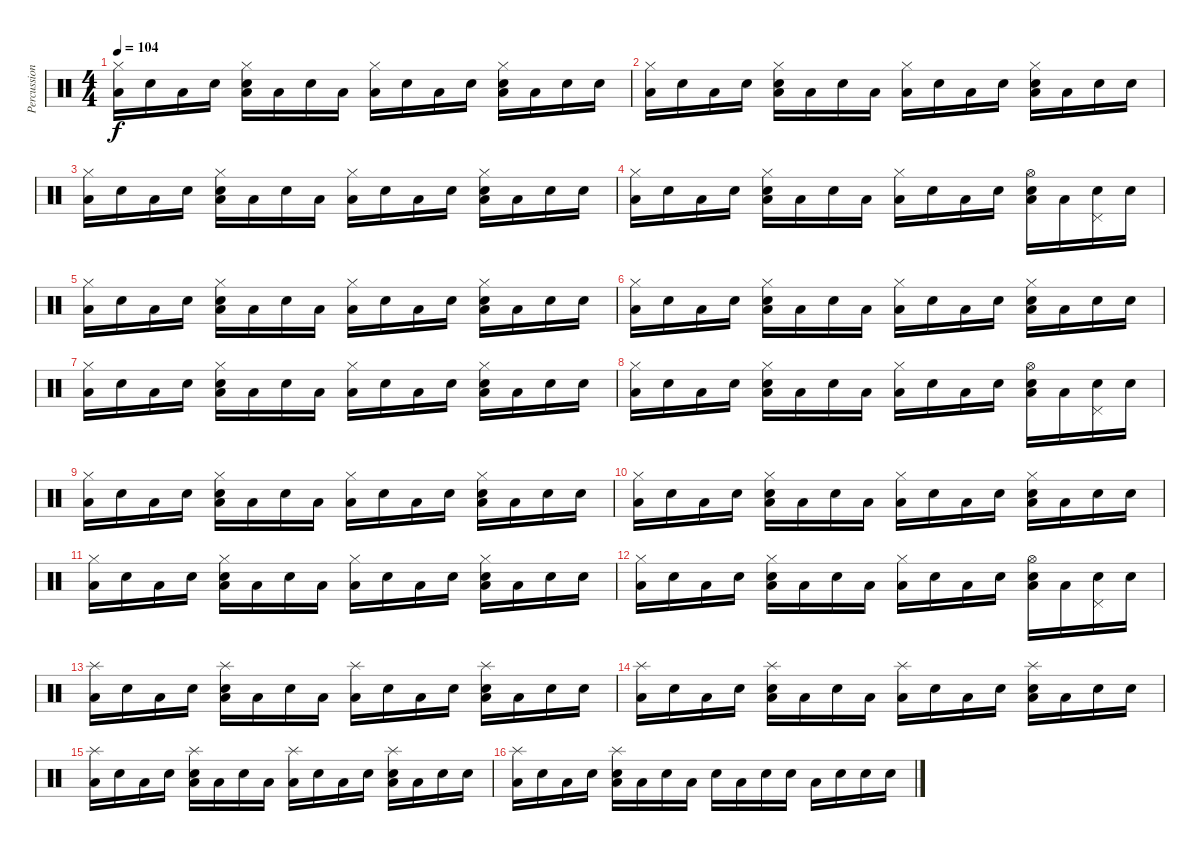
\track ("Percussion" "Percussion") {instrument percussion}
\staff {score}
\articulation defaults
\ts (4 4)
\tempo 104
\clef neutral
\ks c
("Low Floor Tom (hit)" "Hi-Hat (closed)").16{dy f} "Snare (hit)".16 "Low Floor Tom (hit)".16 "Snare (hit)".16 ("Low Floor Tom (hit)" "Hi-Hat (closed)" "Snare (hit) 2").16 "Low Floor Tom (hit)".16 "Snare (hit)".16 "Low Floor Tom (hit)".16 ("Low Floor Tom (hit)" "Hi-Hat (closed)").16 "Snare (hit)".16 "Low Floor Tom (hit)".16 "Snare (hit)".16 ("Low Floor Tom (hit)" "Hi-Hat (closed)" "Snare (hit) 2").16 "Low Floor Tom (hit)".16 "Snare (hit)".16 "Snare (hit)".16 |
("Low Floor Tom (hit)" "Hi-Hat (closed)").16 "Snare (hit)".16 "Low Floor Tom (hit)".16 "Snare (hit)".16 ("Low Floor Tom (hit)" "Hi-Hat (closed)" "Snare (hit) 2").16 "Low Floor Tom (hit)".16 "Snare (hit)".16 "Low Floor Tom (hit)".16 ("Low Floor Tom (hit)" "Hi-Hat (closed)").16 "Snare (hit)".16 "Low Floor Tom (hit)".16 "Snare (hit)".16 ("Low Floor Tom (hit)" "Hi-Hat (closed)" "Snare (hit) 2").16 "Low Floor Tom (hit)".16 "Snare (hit)".16 "Snare (hit)".16 |
("Low Floor Tom (hit)" "Hi-Hat (closed)").16 "Snare (hit)".16 "Low Floor Tom (hit)".16 "Snare (hit)".16 ("Low Floor Tom (hit)" "Hi-Hat (closed)" "Snare (hit) 2").16 "Low Floor Tom (hit)".16 "Snare (hit)".16 "Low Floor Tom (hit)".16 ("Low Floor Tom (hit)" "Hi-Hat (closed)").16 "Snare (hit)".16 "Low Floor Tom (hit)".16 "Snare (hit)".16 ("Low Floor Tom (hit)" "Hi-Hat (closed)" "Snare (hit) 2").16 "Low Floor Tom (hit)".16 "Snare (hit)".16 "Snare (hit)".16 |
("Low Floor Tom (hit)" "Hi-Hat (closed)").16 "Snare (hit)".16 "Low Floor Tom (hit)".16 "Snare (hit)".16 ("Low Floor Tom (hit)" "Hi-Hat (closed)" "Snare (hit) 2").16 "Low Floor Tom (hit)".16 "Snare (hit)".16 "Low Floor Tom (hit)".16 ("Low Floor Tom (hit)" "Hi-Hat (closed)").16 "Snare (hit)".16 "Low Floor Tom (hit)".16 "Snare (hit)".16 ("Low Floor Tom (hit)" "Hi-Hat (open)" "Snare (hit) 2").16 "Low Floor Tom (hit)".16 ("Snare (hit)" "Pedal Hi-Hat (hit)").16 "Snare (hit)".16 |
("Low Floor Tom (hit)" "Hi-Hat (closed)").16 "Snare (hit)".16 "Low Floor Tom (hit)".16 "Snare (hit)".16 ("Low Floor Tom (hit)" "Hi-Hat (closed)" "Snare (hit) 2").16 "Low Floor Tom (hit)".16 "Snare (hit)".16 "Low Floor Tom (hit)".16 ("Low Floor Tom (hit)" "Hi-Hat (closed)").16 "Snare (hit)".16 "Low Floor Tom (hit)".16 "Snare (hit)".16 ("Low Floor Tom (hit)" "Hi-Hat (closed)" "Snare (hit) 2").16 "Low Floor Tom (hit)".16 "Snare (hit)".16 "Snare (hit)".16 |
("Low Floor Tom (hit)" "Hi-Hat (closed)").16 "Snare (hit)".16 "Low Floor Tom (hit)".16 "Snare (hit)".16 ("Low Floor Tom (hit)" "Hi-Hat (closed)" "Snare (hit) 2").16 "Low Floor Tom (hit)".16 "Snare (hit)".16 "Low Floor Tom (hit)".16 ("Low Floor Tom (hit)" "Hi-Hat (closed)").16 "Snare (hit)".16 "Low Floor Tom (hit)".16 "Snare (hit)".16 ("Low Floor Tom (hit)" "Hi-Hat (closed)" "Snare (hit) 2").16 "Low Floor Tom (hit)".16 "Snare (hit)".16 "Snare (hit)".16 |
("Low Floor Tom (hit)" "Hi-Hat (closed)").16 "Snare (hit)".16 "Low Floor Tom (hit)".16 "Snare (hit)".16 ("Low Floor Tom (hit)" "Hi-Hat (closed)" "Snare (hit) 2").16 "Low Floor Tom (hit)".16 "Snare (hit)".16 "Low Floor Tom (hit)".16 ("Low Floor Tom (hit)" "Hi-Hat (closed)").16 "Snare (hit)".16 "Low Floor Tom (hit)".16 "Snare (hit)".16 ("Low Floor Tom (hit)" "Hi-Hat (closed)" "Snare (hit) 2").16 "Low Floor Tom (hit)".16 "Snare (hit)".16 "Snare (hit)".16 |
("Low Floor Tom (hit)" "Hi-Hat (closed)").16 "Snare (hit)".16 "Low Floor Tom (hit)".16 "Snare (hit)".16 ("Low Floor Tom (hit)" "Hi-Hat (closed)" "Snare (hit) 2").16 "Low Floor Tom (hit)".16 "Snare (hit)".16 "Low Floor Tom (hit)".16 ("Low Floor Tom (hit)" "Hi-Hat (closed)").16 "Snare (hit)".16 "Low Floor Tom (hit)".16 "Snare (hit)".16 ("Low Floor Tom (hit)" "Hi-Hat (open)" "Snare (hit) 2").16 "Low Floor Tom (hit)".16 ("Snare (hit)" "Pedal Hi-Hat (hit)").16 "Snare (hit)".16 |
("Low Floor Tom (hit)" "Hi-Hat (closed)").16 "Snare (hit)".16 "Low Floor Tom (hit)".16 "Snare (hit)".16 ("Low Floor Tom (hit)" "Hi-Hat (closed)" "Snare (hit) 2").16 "Low Floor Tom (hit)".16 "Snare (hit)".16 "Low Floor Tom (hit)".16 ("Low Floor Tom (hit)" "Hi-Hat (closed)").16 "Snare (hit)".16 "Low Floor Tom (hit)".16 "Snare (hit)".16 ("Low Floor Tom (hit)" "Hi-Hat (closed)" "Snare (hit) 2").16 "Low Floor Tom (hit)".16 "Snare (hit)".16 "Snare (hit)".16 |
("Low Floor Tom (hit)" "Hi-Hat (closed)").16 "Snare (hit)".16 "Low Floor Tom (hit)".16 "Snare (hit)".16 ("Low Floor Tom (hit)" "Hi-Hat (closed)" "Snare (hit) 2").16 "Low Floor Tom (hit)".16 "Snare (hit)".16 "Low Floor Tom (hit)".16 ("Low Floor Tom (hit)" "Hi-Hat (closed)").16 "Snare (hit)".16 "Low Floor Tom (hit)".16 "Snare (hit)".16 ("Low Floor Tom (hit)" "Hi-Hat (closed)" "Snare (hit) 2").16 "Low Floor Tom (hit)".16 "Snare (hit)".16 "Snare (hit)".16 |
("Low Floor Tom (hit)" "Hi-Hat (closed)").16 "Snare (hit)".16 "Low Floor Tom (hit)".16 "Snare (hit)".16 ("Low Floor Tom (hit)" "Hi-Hat (closed)" "Snare (hit) 2").16 "Low Floor Tom (hit)".16 "Snare (hit)".16 "Low Floor Tom (hit)".16 ("Low Floor Tom (hit)" "Hi-Hat (closed)").16 "Snare (hit)".16 "Low Floor Tom (hit)".16 "Snare (hit)".16 ("Low Floor Tom (hit)" "Hi-Hat (closed)" "Snare (hit) 2").16 "Low Floor Tom (hit)".16 "Snare (hit)".16 "Snare (hit)".16 |
("Low Floor Tom (hit)" "Hi-Hat (closed)").16 "Snare (hit)".16 "Low Floor Tom (hit)".16 "Snare (hit)".16 ("Low Floor Tom (hit)" "Hi-Hat (closed)" "Snare (hit) 2").16 "Low Floor Tom (hit)".16 "Snare (hit)".16 "Low Floor Tom (hit)".16 ("Low Floor Tom (hit)" "Hi-Hat (closed)").16 "Snare (hit)".16 "Low Floor Tom (hit)".16 "Snare (hit)".16 ("Low Floor Tom (hit)" "Hi-Hat (open)" "Snare (hit) 2").16 "Low Floor Tom (hit)".16 ("Snare (hit)" "Pedal Hi-Hat (hit)").16 "Snare (hit)".16 |
("Low Floor Tom (hit)" "Splash (hit)").16 "Snare (hit)".16 "Low Floor Tom (hit)".16 "Snare (hit)".16 ("Low Floor Tom (hit)" "Splash (hit)" "Snare (hit) 2").16 "Low Floor Tom (hit)".16 "Snare (hit)".16 "Low Floor Tom (hit)".16 ("Low Floor Tom (hit)" "Splash (hit)").16 "Snare (hit)".16 "Low Floor Tom (hit)".16 "Snare (hit)".16 ("Low Floor Tom (hit)" "Splash (hit)" "Snare (hit) 2").16 "Low Floor Tom (hit)".16 "Snare (hit)".16 "Snare (hit)".16 |
("Low Floor Tom (hit)" "Splash (hit)").16 "Snare (hit)".16 "Low Floor Tom (hit)".16 "Snare (hit)".16 ("Low Floor Tom (hit)" "Splash (hit)" "Snare (hit) 2").16 "Low Floor Tom (hit)".16 "Snare (hit)".16 "Low Floor Tom (hit)".16 ("Low Floor Tom (hit)" "Splash (hit)").16 "Snare (hit)".16 "Low Floor Tom (hit)".16 "Snare (hit)".16 ("Low Floor Tom (hit)" "Splash (hit)" "Snare (hit) 2").16 "Low Floor Tom (hit)".16 "Snare (hit)".16 "Snare (hit)".16 |
("Low Floor Tom (hit)" "Splash (hit)").16 "Snare (hit)".16 "Low Floor Tom (hit)".16 "Snare (hit)".16 ("Low Floor Tom (hit)" "Splash (hit)" "Snare (hit) 2").16 "Low Floor Tom (hit)".16 "Snare (hit)".16 "Low Floor Tom (hit)".16 ("Low Floor Tom (hit)" "Splash (hit)").16 "Snare (hit)".16 "Low Floor Tom (hit)".16 "Snare (hit)".16 ("Low Floor Tom (hit)" "Splash (hit)" "Snare (hit) 2").16 "Low Floor Tom (hit)".16 "Snare (hit)".16 "Snare (hit)".16 |
("Low Floor Tom (hit)" "Splash (hit)").16 "Snare (hit)".16 "Low Floor Tom (hit)".16 "Snare (hit)".16 ("Low Floor Tom (hit)" "Splash (hit)" "Snare (hit) 2").16 "Low Floor Tom (hit)".16 "Snare (hit)".16 "Low Floor Tom (hit)".16 "Snare (hit) 2".16 "Low Floor Tom (hit)".16 "Snare (hit) 2".16 "Snare (hit)".16 "Low Tom (hit)".16 "Snare (hit) 2".16 "Snare (hit) 2".16 "Snare (hit) 2".16
